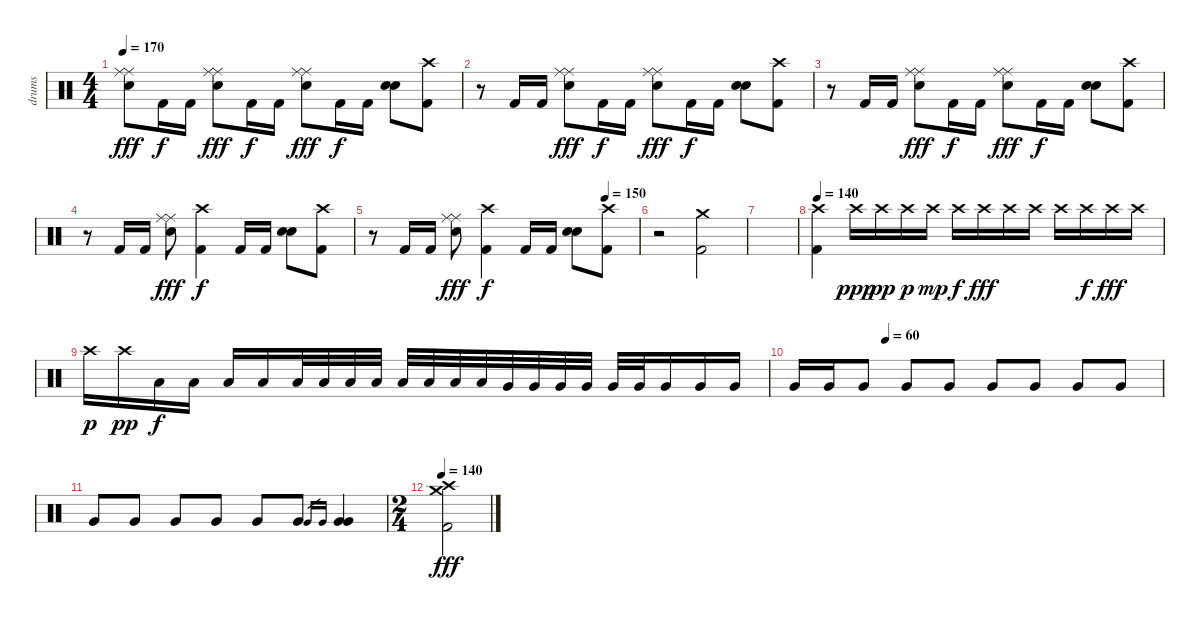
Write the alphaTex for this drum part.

\track ("drums" "drums") {instrument percussion}
\staff {score}
\articulation defaults
\ts (4 4)
\tempo 170
\clef neutral
\ks c
("Ride (middle)" "Ride (middle)" "Snare (hit) 2").8{dy fff} "Kick (hit) 2".16{dy f} "Kick (hit) 2".16 ("Ride (middle)" "Ride (middle)" "Snare (hit) 2").8{dy fff} "Kick (hit) 2".16{dy f} "Kick (hit) 2".16 ("Ride (middle)" "Ride (middle)" "Snare (hit) 2").8{dy fff} "Kick (hit) 2".16{dy f} "Kick (hit) 2".16 ("Snare (hit) 2" "Snare (hit) 2").8 ("Crash high (hit)" "Kick (hit) 2").8 |
r.8 "Kick (hit) 2".16 "Kick (hit) 2".16 ("Ride (middle)" "Ride (middle)" "Snare (hit) 2").8{dy fff} "Kick (hit) 2".16{dy f} "Kick (hit) 2".16 ("Ride (middle)" "Ride (middle)" "Snare (hit) 2").8{dy fff} "Kick (hit) 2".16{dy f} "Kick (hit) 2".16 ("Snare (hit) 2" "Snare (hit) 2").8 ("Crash high (hit)" "Kick (hit) 2").8 |
r.8 "Kick (hit) 2".16 "Kick (hit) 2".16 ("Ride (middle)" "Ride (middle)" "Snare (hit) 2").8{dy fff} "Kick (hit) 2".16{dy f} "Kick (hit) 2".16 ("Ride (middle)" "Ride (middle)" "Snare (hit) 2").8{dy fff} "Kick (hit) 2".16{dy f} "Kick (hit) 2".16 ("Snare (hit) 2" "Snare (hit) 2").8 ("Crash high (hit)" "Kick (hit) 2").8 |
r.8 "Kick (hit) 2".16 "Kick (hit) 2".16 ("Ride (middle)" "Ride (middle)" "Snare (hit) 2").8{dy fff} ("Crash high (hit)" "Kick (hit) 2").4{dy f} "Kick (hit) 2".16 "Kick (hit) 2".16 ("Snare (hit) 2" "Snare (hit) 2").8 ("Crash high (hit)" "Kick (hit) 2").8 |
\tempo (150 0.875)
r.8 "Kick (hit) 2".16 "Kick (hit) 2".16 ("Ride (middle)" "Ride (middle)" "Snare (hit) 2").8{dy fff} ("Crash high (hit)" "Kick (hit) 2").4{dy f} "Kick (hit) 2".16 "Kick (hit) 2".16 ("Snare (hit) 2" "Snare (hit) 2").8 ("Crash high (hit)" "Kick (hit) 2").8 |
r.2 ("Crash medium (hit)" "Kick (hit) 2").2 |
|
\tempo 140
("Crash high (hit)" "Kick (hit) 2").4 "Crash high (hit)".16{dy ppp} "Crash high (hit)".16{dy pp} "Crash high (hit)".16{dy p} "Crash high (hit)".16{dy mp} "Crash high (hit)".16{dy f} "Crash high (hit)".16{dy fff} "Crash high (hit)".16 "Crash high (hit)".16 "Crash high (hit)".16 "Crash high (hit)".16{dy f} "Crash high (hit)".16{dy fff} "Crash high (hit)".16 |
"Crash high (hit)".16{dy p} "Crash high (hit)".16{dy pp} "Low Floor Tom (hit)".16{dy f} "Low Floor Tom (hit)".16 "Low Floor Tom (hit)".16 "Low Floor Tom (hit)".16 "Low Floor Tom (hit)".32 "Low Floor Tom (hit)".32 "Low Floor Tom (hit)".32 "Low Floor Tom (hit)".32 "Low Floor Tom (hit)".32 "Low Floor Tom (hit)".32 "Low Floor Tom (hit)".32 "Low Floor Tom (hit)".32 "Very Low Tom (hit)".32 "Very Low Tom (hit)".32 "Very Low Tom (hit)".32 "Very Low Tom (hit)".32 "Very Low Tom (hit)".32 "Very Low Tom (hit)".32 "Very Low Tom (hit)".16 "Very Low Tom (hit)".16 "Very Low Tom (hit)".16 |
\tempo (60 0.25)
"Very Low Tom (hit)".16 "Very Low Tom (hit)".16 "Very Low Tom (hit)".8 "Very Low Tom (hit)".8 "Very Low Tom (hit)".8 "Very Low Tom (hit)".8 "Very Low Tom (hit)".8 "Very Low Tom (hit)".8 "Very Low Tom (hit)".8 |
"Very Low Tom (hit)".8 "Very Low Tom (hit)".8 "Very Low Tom (hit)".8 "Very Low Tom (hit)".8 "Very Low Tom (hit)".8 "Very Low Tom (hit)".8 "Very Low Tom (hit)".16{gr} "Very Low Tom (hit)".16{gr} ("Very Low Tom (hit)" "Very Low Tom (hit)").4 |
\ts (2 4)
\tempo 140
("Crash medium (hit)" "Crash high (hit)" "Kick (hit) 2").2{dy fff}
